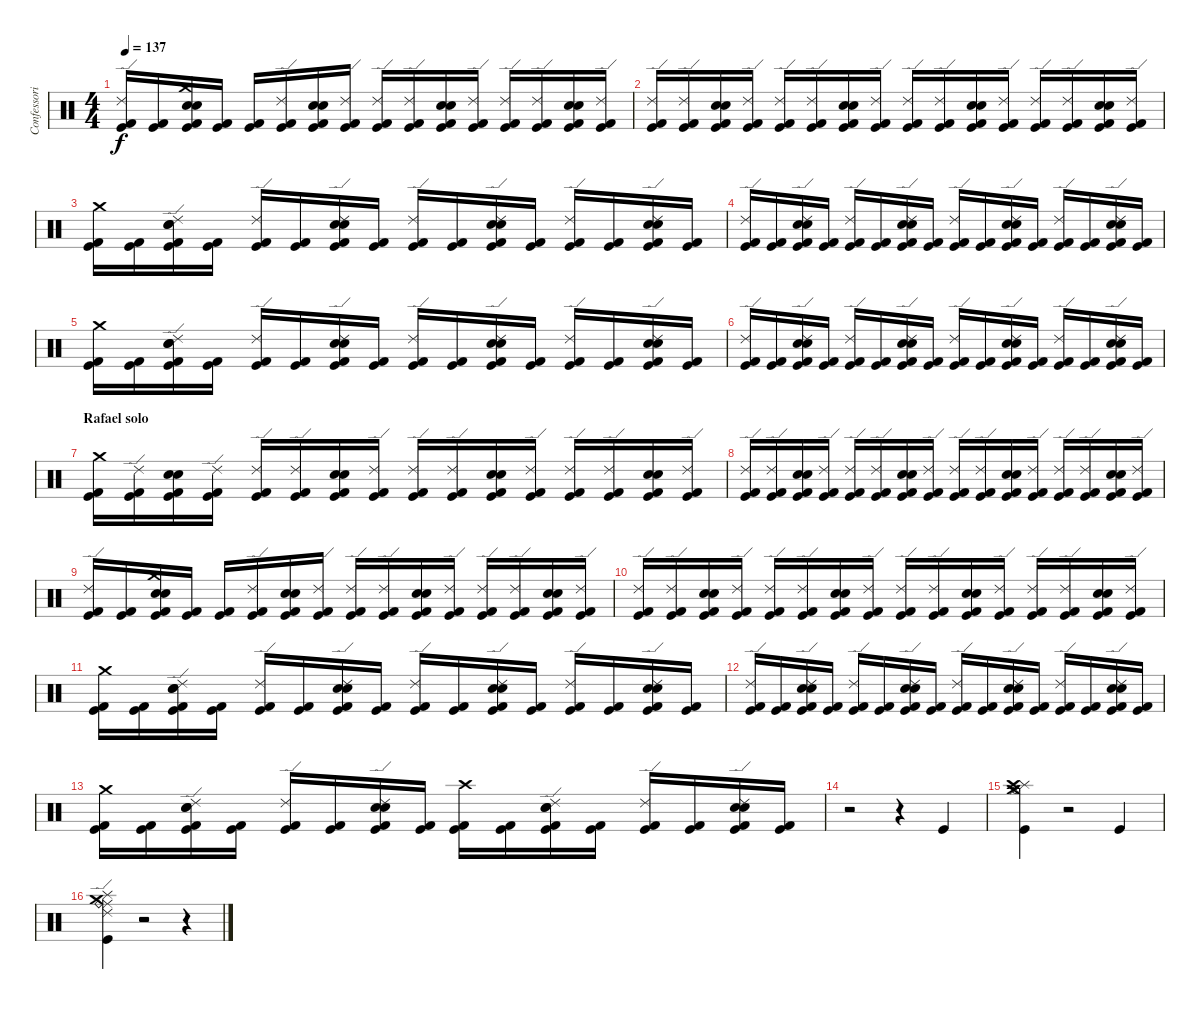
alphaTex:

\track ("Confessori" "Confessori") {instrument percussion}
\staff {score}
\articulation defaults
\ts (4 4)
\tempo 137
\clef neutral
\ks c
("Ride (edge) 2" "Kick (hit) 2" "Kick (hit)").16{dy f} ("Kick (hit) 2" "Kick (hit)").16 ("Crash medium (hit)" "Electric Snare (hit)" "Snare (hit) 2" "Kick (hit) 2" "Kick (hit)").16 ("Kick (hit) 2" "Kick (hit)").16 ("Kick (hit) 2" "Kick (hit)").16 ("Ride (edge) 2" "Kick (hit) 2" "Kick (hit)").16 ("Electric Snare (hit)" "Snare (hit) 2" "Kick (hit) 2" "Kick (hit)").16 ("Ride (edge) 2" "Kick (hit) 2" "Kick (hit)").16 ("Ride (edge) 2" "Kick (hit) 2" "Kick (hit)").16 ("Ride (edge) 2" "Kick (hit) 2" "Kick (hit)").16 ("Electric Snare (hit)" "Snare (hit) 2" "Kick (hit) 2" "Kick (hit)").16 ("Ride (edge) 2" "Kick (hit) 2" "Kick (hit)").16 ("Ride (edge) 2" "Kick (hit) 2" "Kick (hit)").16 ("Ride (edge) 2" "Kick (hit) 2" "Kick (hit)").16 ("Electric Snare (hit)" "Snare (hit) 2" "Kick (hit) 2" "Kick (hit)").16 ("Ride (edge) 2" "Kick (hit) 2" "Kick (hit)").16 |
("Ride (edge) 2" "Kick (hit) 2" "Kick (hit)").16 ("Ride (edge) 2" "Kick (hit) 2" "Kick (hit)").16 ("Electric Snare (hit)" "Snare (hit) 2" "Kick (hit) 2" "Kick (hit)").16 ("Ride (edge) 2" "Kick (hit) 2" "Kick (hit)").16 ("Ride (edge) 2" "Kick (hit) 2" "Kick (hit)").16 ("Ride (edge) 2" "Kick (hit) 2" "Kick (hit)").16 ("Electric Snare (hit)" "Snare (hit) 2" "Kick (hit) 2" "Kick (hit)").16 ("Ride (edge) 2" "Kick (hit) 2" "Kick (hit)").16 ("Ride (edge) 2" "Kick (hit) 2" "Kick (hit)").16 ("Ride (edge) 2" "Kick (hit) 2" "Kick (hit)").16 ("Electric Snare (hit)" "Snare (hit) 2" "Kick (hit) 2" "Kick (hit)").16 ("Ride (edge) 2" "Kick (hit) 2" "Kick (hit)").16 ("Ride (edge) 2" "Kick (hit) 2" "Kick (hit)").16 ("Ride (edge) 2" "Kick (hit) 2" "Kick (hit)").16 ("Electric Snare (hit)" "Snare (hit) 2" "Kick (hit) 2" "Kick (hit)").16 ("Ride (edge) 2" "Kick (hit) 2" "Kick (hit)").16 |
("Crash medium (hit)" "Kick (hit) 2" "Kick (hit)").16 ("Kick (hit) 2" "Kick (hit)").16 ("Ride (edge) 2" "Electric Snare (hit)" "Snare (hit) 2" "Kick (hit) 2" "Kick (hit)").16 ("Kick (hit) 2" "Kick (hit)").16 ("Ride (edge) 2" "Kick (hit) 2" "Kick (hit)").16 ("Kick (hit) 2" "Kick (hit)").16 ("Ride (edge) 2" "Electric Snare (hit)" "Snare (hit) 2" "Kick (hit) 2" "Kick (hit)").16 ("Kick (hit) 2" "Kick (hit)").16 ("Ride (edge) 2" "Kick (hit) 2" "Kick (hit)").16 ("Kick (hit) 2" "Kick (hit)").16 ("Ride (edge) 2" "Electric Snare (hit)" "Snare (hit) 2" "Kick (hit) 2" "Kick (hit)").16 ("Kick (hit) 2" "Kick (hit)").16 ("Ride (edge) 2" "Kick (hit) 2" "Kick (hit)").16 ("Kick (hit) 2" "Kick (hit)").16 ("Ride (edge) 2" "Electric Snare (hit)" "Snare (hit) 2" "Kick (hit) 2" "Kick (hit)").16 ("Kick (hit) 2" "Kick (hit)").16 |
("Ride (edge) 2" "Kick (hit) 2" "Kick (hit)").16 ("Kick (hit) 2" "Kick (hit)").16 ("Ride (edge) 2" "Electric Snare (hit)" "Snare (hit) 2" "Kick (hit) 2" "Kick (hit)").16 ("Kick (hit) 2" "Kick (hit)").16 ("Ride (edge) 2" "Kick (hit) 2" "Kick (hit)").16 ("Kick (hit) 2" "Kick (hit)").16 ("Ride (edge) 2" "Electric Snare (hit)" "Snare (hit) 2" "Kick (hit) 2" "Kick (hit)").16 ("Kick (hit) 2" "Kick (hit)").16 ("Ride (edge) 2" "Kick (hit) 2" "Kick (hit)").16 ("Kick (hit) 2" "Kick (hit)").16 ("Ride (edge) 2" "Electric Snare (hit)" "Snare (hit) 2" "Kick (hit) 2" "Kick (hit)").16 ("Kick (hit) 2" "Kick (hit)").16 ("Ride (edge) 2" "Kick (hit) 2" "Kick (hit)").16 ("Kick (hit) 2" "Kick (hit)").16 ("Ride (edge) 2" "Electric Snare (hit)" "Snare (hit) 2" "Kick (hit) 2" "Kick (hit)").16 ("Kick (hit) 2" "Kick (hit)").16 |
("Crash medium (hit)" "Kick (hit) 2" "Kick (hit)").16 ("Kick (hit) 2" "Kick (hit)").16 ("Ride (edge) 2" "Electric Snare (hit)" "Snare (hit) 2" "Kick (hit) 2" "Kick (hit)").16 ("Kick (hit) 2" "Kick (hit)").16 ("Ride (edge) 2" "Kick (hit) 2" "Kick (hit)").16 ("Kick (hit) 2" "Kick (hit)").16 ("Ride (edge) 2" "Electric Snare (hit)" "Snare (hit) 2" "Kick (hit) 2" "Kick (hit)").16 ("Kick (hit) 2" "Kick (hit)").16 ("Ride (edge) 2" "Kick (hit) 2" "Kick (hit)").16 ("Kick (hit) 2" "Kick (hit)").16 ("Ride (edge) 2" "Electric Snare (hit)" "Snare (hit) 2" "Kick (hit) 2" "Kick (hit)").16 ("Kick (hit) 2" "Kick (hit)").16 ("Ride (edge) 2" "Kick (hit) 2" "Kick (hit)").16 ("Kick (hit) 2" "Kick (hit)").16 ("Ride (edge) 2" "Electric Snare (hit)" "Snare (hit) 2" "Kick (hit) 2" "Kick (hit)").16 ("Kick (hit) 2" "Kick (hit)").16 |
("Ride (edge) 2" "Kick (hit) 2" "Kick (hit)").16 ("Kick (hit) 2" "Kick (hit)").16 ("Ride (edge) 2" "Electric Snare (hit)" "Snare (hit) 2" "Kick (hit) 2" "Kick (hit)").16 ("Kick (hit) 2" "Kick (hit)").16 ("Ride (edge) 2" "Kick (hit) 2" "Kick (hit)").16 ("Kick (hit) 2" "Kick (hit)").16 ("Ride (edge) 2" "Electric Snare (hit)" "Snare (hit) 2" "Kick (hit) 2" "Kick (hit)").16 ("Kick (hit) 2" "Kick (hit)").16 ("Ride (edge) 2" "Kick (hit) 2" "Kick (hit)").16 ("Kick (hit) 2" "Kick (hit)").16 ("Ride (edge) 2" "Electric Snare (hit)" "Snare (hit) 2" "Kick (hit) 2" "Kick (hit)").16 ("Kick (hit) 2" "Kick (hit)").16 ("Ride (edge) 2" "Kick (hit) 2" "Kick (hit)").16 ("Kick (hit) 2" "Kick (hit)").16 ("Ride (edge) 2" "Electric Snare (hit)" "Snare (hit) 2" "Kick (hit) 2" "Kick (hit)").16 ("Kick (hit) 2" "Kick (hit)").16 |
\section ("" "Rafael solo")
("Crash medium (hit)" "Kick (hit) 2" "Kick (hit)").16 ("Ride (edge) 2" "Kick (hit) 2" "Kick (hit)").16 ("Electric Snare (hit)" "Snare (hit) 2" "Kick (hit) 2" "Kick (hit)").16 ("Ride (edge) 2" "Kick (hit) 2" "Kick (hit)").16 ("Ride (edge) 2" "Kick (hit) 2" "Kick (hit)").16 ("Ride (edge) 2" "Kick (hit) 2" "Kick (hit)").16 ("Electric Snare (hit)" "Snare (hit) 2" "Kick (hit) 2" "Kick (hit)").16 ("Ride (edge) 2" "Kick (hit) 2" "Kick (hit)").16 ("Ride (edge) 2" "Kick (hit) 2" "Kick (hit)").16 ("Ride (edge) 2" "Kick (hit) 2" "Kick (hit)").16 ("Electric Snare (hit)" "Snare (hit) 2" "Kick (hit) 2" "Kick (hit)").16 ("Ride (edge) 2" "Kick (hit) 2" "Kick (hit)").16 ("Ride (edge) 2" "Kick (hit) 2" "Kick (hit)").16 ("Ride (edge) 2" "Kick (hit) 2" "Kick (hit)").16 ("Electric Snare (hit)" "Snare (hit) 2" "Kick (hit) 2" "Kick (hit)").16 ("Ride (edge) 2" "Kick (hit) 2" "Kick (hit)").16 |
("Ride (edge) 2" "Kick (hit) 2" "Kick (hit)").16 ("Ride (edge) 2" "Kick (hit) 2" "Kick (hit)").16 ("Electric Snare (hit)" "Snare (hit) 2" "Kick (hit) 2" "Kick (hit)").16 ("Ride (edge) 2" "Kick (hit) 2" "Kick (hit)").16 ("Ride (edge) 2" "Kick (hit) 2" "Kick (hit)").16 ("Ride (edge) 2" "Kick (hit) 2" "Kick (hit)").16 ("Electric Snare (hit)" "Snare (hit) 2" "Kick (hit) 2" "Kick (hit)").16 ("Ride (edge) 2" "Kick (hit) 2" "Kick (hit)").16 ("Ride (edge) 2" "Kick (hit) 2" "Kick (hit)").16 ("Ride (edge) 2" "Kick (hit) 2" "Kick (hit)").16 ("Electric Snare (hit)" "Snare (hit) 2" "Kick (hit) 2" "Kick (hit)").16 ("Ride (edge) 2" "Kick (hit) 2" "Kick (hit)").16 ("Ride (edge) 2" "Kick (hit) 2" "Kick (hit)").16 ("Ride (edge) 2" "Kick (hit) 2" "Kick (hit)").16 ("Electric Snare (hit)" "Snare (hit) 2" "Kick (hit) 2" "Kick (hit)").16 ("Ride (edge) 2" "Kick (hit) 2" "Kick (hit)").16 |
("Ride (edge) 2" "Kick (hit) 2" "Kick (hit)").16 ("Kick (hit) 2" "Kick (hit)").16 ("Crash medium (hit)" "Electric Snare (hit)" "Snare (hit) 2" "Kick (hit) 2" "Kick (hit)").16 ("Kick (hit) 2" "Kick (hit)").16 ("Kick (hit) 2" "Kick (hit)").16 ("Ride (edge) 2" "Kick (hit) 2" "Kick (hit)").16 ("Electric Snare (hit)" "Snare (hit) 2" "Kick (hit) 2" "Kick (hit)").16 ("Ride (edge) 2" "Kick (hit) 2" "Kick (hit)").16 ("Ride (edge) 2" "Kick (hit) 2" "Kick (hit)").16 ("Ride (edge) 2" "Kick (hit) 2" "Kick (hit)").16 ("Electric Snare (hit)" "Snare (hit) 2" "Kick (hit) 2" "Kick (hit)").16 ("Ride (edge) 2" "Kick (hit) 2" "Kick (hit)").16 ("Ride (edge) 2" "Kick (hit) 2" "Kick (hit)").16 ("Ride (edge) 2" "Kick (hit) 2" "Kick (hit)").16 ("Electric Snare (hit)" "Snare (hit) 2" "Kick (hit) 2" "Kick (hit)").16 ("Ride (edge) 2" "Kick (hit) 2" "Kick (hit)").16 |
("Ride (edge) 2" "Kick (hit) 2" "Kick (hit)").16 ("Ride (edge) 2" "Kick (hit) 2" "Kick (hit)").16 ("Electric Snare (hit)" "Snare (hit) 2" "Kick (hit) 2" "Kick (hit)").16 ("Ride (edge) 2" "Kick (hit) 2" "Kick (hit)").16 ("Ride (edge) 2" "Kick (hit) 2" "Kick (hit)").16 ("Ride (edge) 2" "Kick (hit) 2" "Kick (hit)").16 ("Electric Snare (hit)" "Snare (hit) 2" "Kick (hit) 2" "Kick (hit)").16 ("Ride (edge) 2" "Kick (hit) 2" "Kick (hit)").16 ("Ride (edge) 2" "Kick (hit) 2" "Kick (hit)").16 ("Ride (edge) 2" "Kick (hit) 2" "Kick (hit)").16 ("Electric Snare (hit)" "Snare (hit) 2" "Kick (hit) 2" "Kick (hit)").16 ("Ride (edge) 2" "Kick (hit) 2" "Kick (hit)").16 ("Ride (edge) 2" "Kick (hit) 2" "Kick (hit)").16 ("Ride (edge) 2" "Kick (hit) 2" "Kick (hit)").16 ("Electric Snare (hit)" "Snare (hit) 2" "Kick (hit) 2" "Kick (hit)").16 ("Ride (edge) 2" "Kick (hit) 2" "Kick (hit)").16 |
("Crash medium (hit)" "Kick (hit) 2" "Kick (hit)").16 ("Kick (hit) 2" "Kick (hit)").16 ("Ride (edge) 2" "Electric Snare (hit)" "Snare (hit) 2" "Kick (hit) 2" "Kick (hit)").16 ("Kick (hit) 2" "Kick (hit)").16 ("Ride (edge) 2" "Kick (hit) 2" "Kick (hit)").16 ("Kick (hit) 2" "Kick (hit)").16 ("Ride (edge) 2" "Electric Snare (hit)" "Snare (hit) 2" "Kick (hit) 2" "Kick (hit)").16 ("Kick (hit) 2" "Kick (hit)").16 ("Ride (edge) 2" "Kick (hit) 2" "Kick (hit)").16 ("Kick (hit) 2" "Kick (hit)").16 ("Ride (edge) 2" "Electric Snare (hit)" "Snare (hit) 2" "Kick (hit) 2" "Kick (hit)").16 ("Kick (hit) 2" "Kick (hit)").16 ("Ride (edge) 2" "Kick (hit) 2" "Kick (hit)").16 ("Kick (hit) 2" "Kick (hit)").16 ("Ride (edge) 2" "Electric Snare (hit)" "Snare (hit) 2" "Kick (hit) 2" "Kick (hit)").16 ("Kick (hit) 2" "Kick (hit)").16 |
("Ride (edge) 2" "Kick (hit) 2" "Kick (hit)").16 ("Kick (hit) 2" "Kick (hit)").16 ("Ride (edge) 2" "Electric Snare (hit)" "Snare (hit) 2" "Kick (hit) 2" "Kick (hit)").16 ("Kick (hit) 2" "Kick (hit)").16 ("Ride (edge) 2" "Kick (hit) 2" "Kick (hit)").16 ("Kick (hit) 2" "Kick (hit)").16 ("Ride (edge) 2" "Electric Snare (hit)" "Snare (hit) 2" "Kick (hit) 2" "Kick (hit)").16 ("Kick (hit) 2" "Kick (hit)").16 ("Ride (edge) 2" "Kick (hit) 2" "Kick (hit)").16 ("Kick (hit) 2" "Kick (hit)").16 ("Ride (edge) 2" "Electric Snare (hit)" "Snare (hit) 2" "Kick (hit) 2" "Kick (hit)").16 ("Kick (hit) 2" "Kick (hit)").16 ("Ride (edge) 2" "Kick (hit) 2" "Kick (hit)").16 ("Kick (hit) 2" "Kick (hit)").16 ("Ride (edge) 2" "Electric Snare (hit)" "Snare (hit) 2" "Kick (hit) 2" "Kick (hit)").16 ("Kick (hit) 2" "Kick (hit)").16 |
("Crash medium (hit)" "Kick (hit) 2" "Kick (hit)").16 ("Kick (hit) 2" "Kick (hit)").16 ("Ride (edge) 2" "Electric Snare (hit)" "Snare (hit) 2" "Kick (hit) 2" "Kick (hit)").16 ("Kick (hit) 2" "Kick (hit)").16 ("Ride (edge) 2" "Kick (hit) 2" "Kick (hit)").16 ("Kick (hit) 2" "Kick (hit)").16 ("Ride (edge) 2" "Electric Snare (hit)" "Snare (hit) 2" "Kick (hit) 2" "Kick (hit)").16 ("Kick (hit) 2" "Kick (hit)").16 ("Crash high (hit)" "Kick (hit) 2" "Kick (hit)").16 ("Kick (hit) 2" "Kick (hit)").16 ("Ride (edge) 2" "Electric Snare (hit)" "Snare (hit) 2" "Kick (hit) 2" "Kick (hit)").16 ("Kick (hit) 2" "Kick (hit)").16 ("Ride (edge) 2" "Kick (hit) 2" "Kick (hit)").16 ("Kick (hit) 2" "Kick (hit)").16 ("Ride (edge) 2" "Electric Snare (hit)" "Snare (hit) 2" "Kick (hit) 2" "Kick (hit)").16 ("Kick (hit) 2" "Kick (hit)").16 |
r.2 r.4 "Kick (hit)".4 |
("Hi-Hat (open)" "Splash (hit)" "Crash medium (hit)" "Crash high (hit)" "Hi-Hat (closed)" "Kick (hit)").4 r.2 "Kick (hit)".4 |
("Ride (middle)" "Ride (bell)" "Ride (edge) 2" "Splash (hit)" "Crash medium (hit)" "Kick (hit)").4 r.2 r.4
